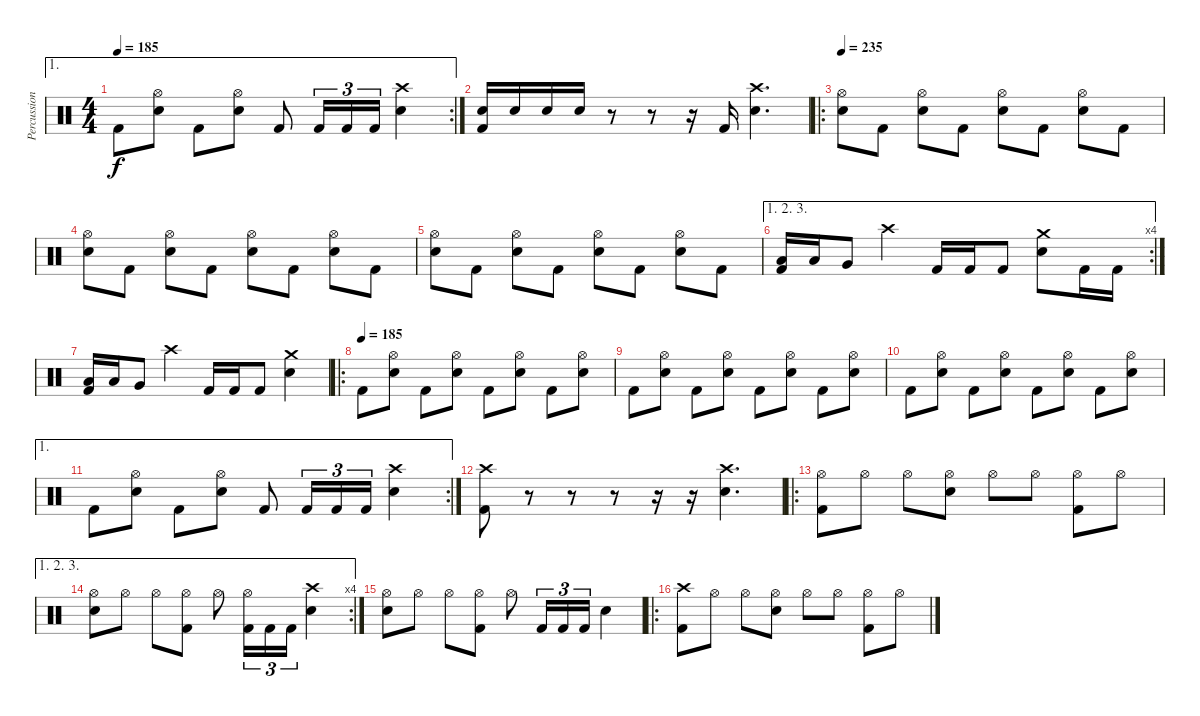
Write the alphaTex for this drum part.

\track ("Percussion" "Percussion") {instrument percussion}
\staff {score}
\articulation defaults
\ae 1
\rc 2
\ts (4 4)
\tempo 185
\clef neutral
\ks c "Kick (hit) 2".8{dy f}
("Hi-Hat (open)" "Electric Snare (hit)").8 "Kick (hit) 2".8 ("Hi-Hat (open)" "Electric Snare (hit)").8 "Kick (hit) 2".8 "Kick (hit) 2".16{tu (3 2)} "Kick (hit) 2".16{tu (3 2)} "Kick (hit) 2".16{tu (3 2)} ("Crash high (hit)" "Electric Snare (hit)").4 |
("Electric Snare (hit)" "Kick (hit) 2").16 "Electric Snare (hit)".16 "Electric Snare (hit)".16 "Electric Snare (hit)".16 r.8 r.8 r.16 "Kick (hit) 2".16 ("Crash high (hit)" "Electric Snare (hit)").4{d} |
\ro
\tempo 235
("Hi-Hat (open)" "Electric Snare (hit)").8 "Kick (hit) 2".8 ("Hi-Hat (open)" "Electric Snare (hit)").8 "Kick (hit) 2".8 ("Hi-Hat (open)" "Electric Snare (hit)").8 "Kick (hit) 2".8 ("Hi-Hat (open)" "Electric Snare (hit)").8 "Kick (hit) 2".8 |
("Hi-Hat (open)" "Electric Snare (hit)").8 "Kick (hit) 2".8 ("Hi-Hat (open)" "Electric Snare (hit)").8 "Kick (hit) 2".8 ("Hi-Hat (open)" "Electric Snare (hit)").8 "Kick (hit) 2".8 ("Hi-Hat (open)" "Electric Snare (hit)").8 "Kick (hit) 2".8 |
("Hi-Hat (open)" "Electric Snare (hit)").8 "Kick (hit) 2".8 ("Hi-Hat (open)" "Electric Snare (hit)").8 "Kick (hit) 2".8 ("Hi-Hat (open)" "Electric Snare (hit)").8 "Kick (hit) 2".8 ("Hi-Hat (open)" "Electric Snare (hit)").8 "Kick (hit) 2".8 |
\ae (1 2 3)
\rc 4
("Low Tom (hit)" "Kick (hit) 2").16 "Low Tom (hit)".16 "Very Low Tom (hit)".8 "Crash high (hit)".4 "Kick (hit) 2".16 "Kick (hit) 2".16 "Kick (hit) 2".8 ("Crash medium (hit)" "Electric Snare (hit)").8 "Kick (hit) 2".16 "Kick (hit) 2".16 |
("Low Tom (hit)" "Kick (hit) 2").16 "Low Tom (hit)".16 "Very Low Tom (hit)".8 "Crash high (hit)".4 "Kick (hit) 2".16 "Kick (hit) 2".16 "Kick (hit) 2".8 ("Crash medium (hit)" "Electric Snare (hit)").4 |
\ro
\tempo (185)
"Kick (hit) 2".8 ("Hi-Hat (open)" "Electric Snare (hit)").8 "Kick (hit) 2".8 ("Hi-Hat (open)" "Electric Snare (hit)").8 "Kick (hit) 2".8 ("Hi-Hat (open)" "Electric Snare (hit)").8 "Kick (hit) 2".8 ("Hi-Hat (open)" "Electric Snare (hit)").8 |
"Kick (hit) 2".8 ("Hi-Hat (open)" "Electric Snare (hit)").8 "Kick (hit) 2".8 ("Hi-Hat (open)" "Electric Snare (hit)").8 "Kick (hit) 2".8 ("Hi-Hat (open)" "Electric Snare (hit)").8 "Kick (hit) 2".8 ("Hi-Hat (open)" "Electric Snare (hit)").8 |
"Kick (hit) 2".8 ("Hi-Hat (open)" "Electric Snare (hit)").8 "Kick (hit) 2".8 ("Hi-Hat (open)" "Electric Snare (hit)").8 "Kick (hit) 2".8 ("Hi-Hat (open)" "Electric Snare (hit)").8 "Kick (hit) 2".8 ("Hi-Hat (open)" "Electric Snare (hit)").8 |
\ae 1
\rc 2 "Kick (hit) 2".8
("Hi-Hat (open)" "Electric Snare (hit)").8 "Kick (hit) 2".8 ("Hi-Hat (open)" "Electric Snare (hit)").8 "Kick (hit) 2".8 "Kick (hit) 2".16{tu (3 2)} "Kick (hit) 2".16{tu (3 2)} "Kick (hit) 2".16{tu (3 2)} ("Crash high (hit)" "Electric Snare (hit)").4 |
("Crash high (hit)" "Kick (hit) 2").8 r.8{volume 0} r.8 r.8 r.16 r.16 ("Crash high (hit)" "Electric Snare (hit)").4{d volume 13} |
\ro
("Hi-Hat (open)" "Kick (hit) 2").8 "Hi-Hat (open)".8 "Hi-Hat (open)".8 ("Hi-Hat (open)" "Electric Snare (hit)").8 "Hi-Hat (open)".8 "Hi-Hat (open)".8 ("Hi-Hat (open)" "Kick (hit) 2").8 "Hi-Hat (open)".8 |
\ae (1 2 3)
\rc 4
("Hi-Hat (open)" "Electric Snare (hit)").8 "Hi-Hat (open)".8 "Hi-Hat (open)".8 ("Hi-Hat (open)" "Kick (hit) 2").8 "Hi-Hat (open)".8 ("Hi-Hat (open)" "Kick (hit) 2").16{tu (3 2)} "Kick (hit) 2".16{tu (3 2)} "Kick (hit) 2".16{tu (3 2)} ("Crash high (hit)" "Electric Snare (hit)").4 |
("Hi-Hat (open)" "Electric Snare (hit)").8 "Hi-Hat (open)".8 "Hi-Hat (open)".8 ("Hi-Hat (open)" "Kick (hit) 2").8 "Hi-Hat (open)".8 "Kick (hit) 2".16{tu (3 2)} "Kick (hit) 2".16{tu (3 2)} "Kick (hit) 2".16{tu (3 2)} "Electric Snare (hit)".4 |
\ro
("Crash high (hit)" "Kick (hit) 2").8 "Hi-Hat (open)".8 "Hi-Hat (open)".8 ("Hi-Hat (open)" "Electric Snare (hit)").8 "Hi-Hat (open)".8 "Hi-Hat (open)".8 ("Hi-Hat (open)" "Kick (hit) 2").8 "Hi-Hat (open)".8
